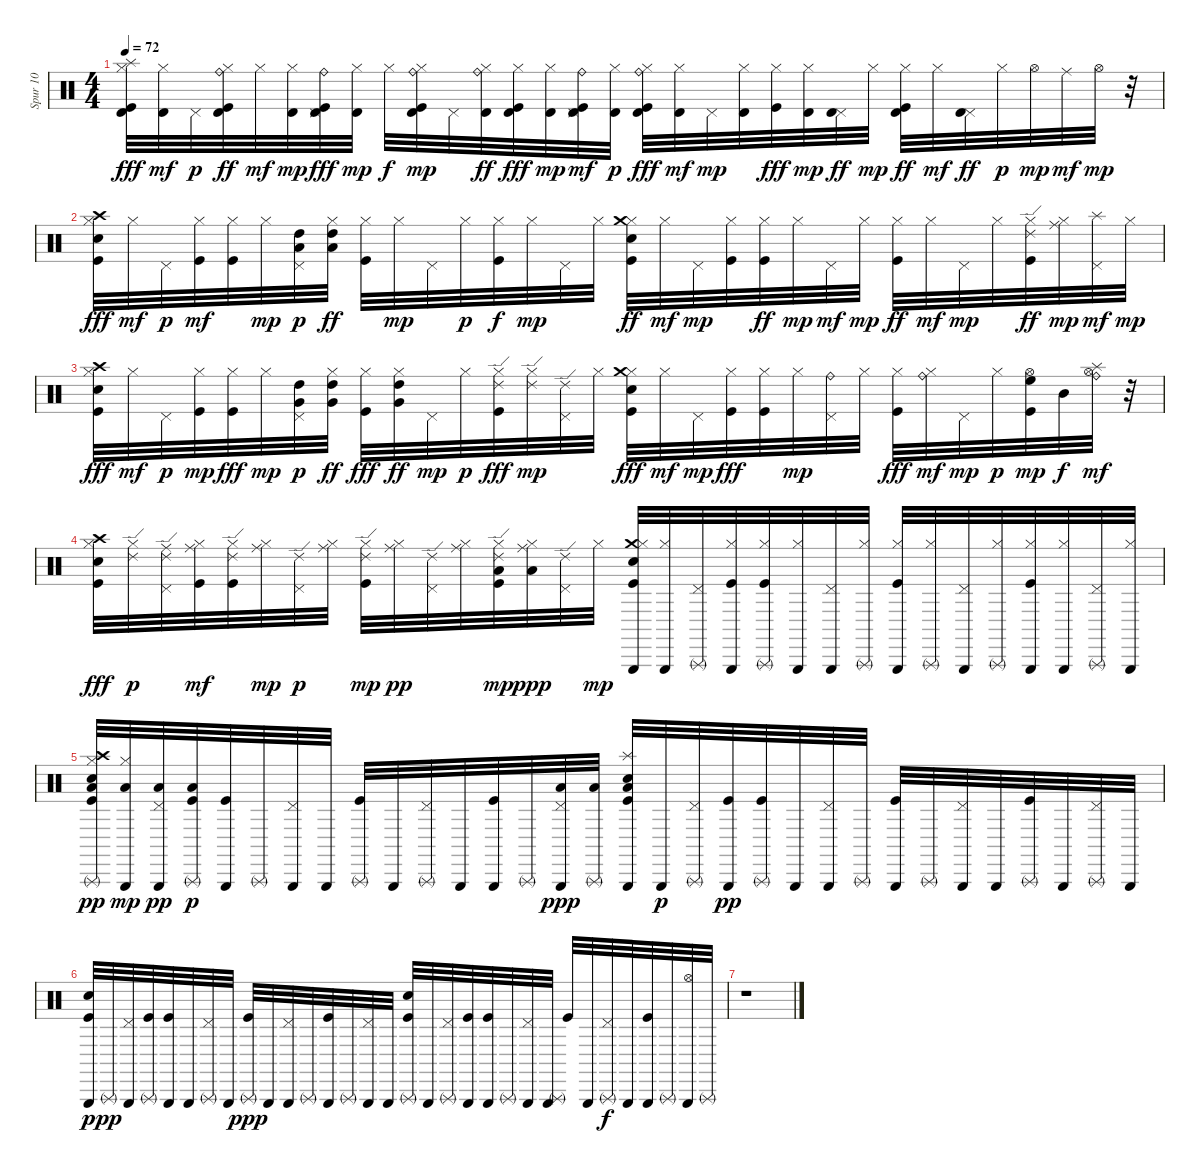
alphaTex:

\track ("Spur 10" "Spur 10") {instrument percussion}
\staff {score}
\articulation defaults
\ts (4 4)
\tempo 72
\clef neutral
\ks c
("Splash (hit)" "Timbale high (hit)" "Kick (hit)" "Hi-Hat (closed)").32{dy fff} ("Timbale high (hit)" "Hi-Hat (closed)").32{dy mf} "Pedal Hi-Hat (hit)".32{dy p} ("Ride (bell)" "Timbale high (hit)" "Hi-Hat (closed)" "Kick (hit)").32{dy ff} "Hi-Hat (closed)".32{dy mf} ("Hi-Hat (closed)" "Timbale high (hit)").32{dy mp} ("Ride (bell)" "Pedal Hi-Hat (hit)" "Timbale high (hit)" "Kick (hit)").32{dy fff} ("Timbale high (hit)" "Hi-Hat (closed)").32{dy mp} "Hi-Hat (closed)".32{dy f} ("Ride (bell)" "Hi-Hat (closed)" "Kick (hit)" "Timbale high (hit)").32{dy mp} "Pedal Hi-Hat (hit)".32 ("Hi-Hat (closed)" "Timbale high (hit)" "Ride (bell)").32{dy ff} ("Timbale high (hit)" "Kick (hit)" "Hi-Hat (closed)").32{dy fff} ("Timbale high (hit)" "Hi-Hat (closed)").32{dy mp} ("Ride (bell)" "Kick (hit)" "Pedal Hi-Hat (hit)" "Timbale high (hit)").32{dy mf} ("Hi-Hat (closed)" "Timbale high (hit)").32{dy p} ("Timbale high (hit)" "Ride (bell)" "Kick (hit)" "Hi-Hat (closed)").32{dy fff} ("Timbale high (hit)" "Hi-Hat (closed)").32{dy mf} "Pedal Hi-Hat (hit)".32{dy mp} ("Timbale high (hit)" "Hi-Hat (closed)").32 ("Hi-Hat (closed)" "Kick (hit)").32{dy fff} ("Timbale high (hit)" "Hi-Hat (closed)").32{dy mp} ("Pedal Hi-Hat (hit)" "Timbale high (hit)").32{dy ff} "Hi-Hat (closed)".32{dy mp} ("Timbale high (hit)" "Hi-Hat (closed)" "Kick (hit)").32{dy ff} "Hi-Hat (closed)".32{dy mf} ("Pedal Hi-Hat (hit)" "Timbale high (hit)").32{dy ff} "Hi-Hat (closed)".32{dy p} "Hi-Hat (open)".32{dy mp} "Ride (middle)".32{dy mf} "Hi-Hat (open)".32{dy mp} r.32 |
("Crash high (hit)" "Kick (hit)" "Hi-Hat (closed)" "Electric Snare (hit)").32{dy fff} "Hi-Hat (closed)".32{dy mf} "Pedal Hi-Hat (hit)".32{dy p} ("Hi-Hat (closed)" "Kick (hit)").32{dy mf} ("Hi-Hat (closed)" "Kick (hit)").32 "Hi-Hat (closed)".32{dy mp} ("Low Floor Tom (hit)" "Pedal Hi-Hat (hit)" "High Tom (hit)").32{dy p} ("Low Floor Tom (hit)" "Hi-Hat (closed)" "High Tom (hit)").32{dy ff} ("Hi-Hat (closed)" "Kick (hit)").32 "Hi-Hat (closed)".32{dy mp} "Pedal Hi-Hat (hit)".32 "Hi-Hat (closed)".32{dy p} ("Kick (hit)" "Hi-Hat (closed)").32{dy f} "Hi-Hat (closed)".32{dy mp} "Pedal Hi-Hat (hit)".32 "Hi-Hat (closed)".32 ("Kick (hit)" "Hi-Hat (closed)" "Electric Snare (hit)" "Crash medium (hit)").32{dy ff} "Hi-Hat (closed)".32{dy mf} "Pedal Hi-Hat (hit)".32{dy mp} ("Hi-Hat (closed)" "Kick (hit)").32 ("Hi-Hat (closed)" "Kick (hit)").32{dy ff} "Hi-Hat (closed)".32{dy mp} "Pedal Hi-Hat (hit)".32{dy mf} "Hi-Hat (closed)".32{dy mp} ("Hi-Hat (closed)" "Kick (hit)").32{dy ff} "Hi-Hat (closed)".32{dy mf} "Pedal Hi-Hat (hit)".32{dy mp} "Hi-Hat (closed)".32 ("Kick (hit)" "Hi-Hat (closed)" "Ride (edge) 2").32{dy ff} ("Ride (middle)" "Hi-Hat (closed)").32{dy mp} ("Pedal Hi-Hat (hit)" "Splash (hit)").32{dy mf} "Hi-Hat (closed)".32{dy mp} |
("Crash high (hit)" "Kick (hit)" "Hi-Hat (closed)" "Electric Snare (hit)").32{dy fff} "Hi-Hat (closed)".32{dy mf} "Pedal Hi-Hat (hit)".32{dy p} ("Hi-Hat (closed)" "Kick (hit)").32{dy mp} ("Hi-Hat (closed)" "Kick (hit)").32{dy fff} "Hi-Hat (closed)".32{dy mp} ("Very Low Tom (hit)" "Pedal Hi-Hat (hit)" "High Tom (hit)").32{dy p} ("Hi-Hat (closed)" "Very Low Tom (hit)" "High Tom (hit)").32{dy ff} ("Hi-Hat (closed)" "Kick (hit)").32{dy fff} ("Hi-Hat (closed)" "Very Low Tom (hit)" "High Tom (hit)").32{dy ff} "Pedal Hi-Hat (hit)".32{dy mp} "Hi-Hat (closed)".32{dy p} ("Ride (edge) 2" "Kick (hit)" "Hi-Hat (closed)").32{dy fff} ("Ride (edge) 2" "Hi-Hat (closed)").32{dy mp} ("Ride (edge) 2" "Pedal Hi-Hat (hit)").32 "Hi-Hat (closed)".32 ("Kick (hit)" "Hi-Hat (closed)" "Crash medium (hit)" "Electric Snare (hit)").32{dy fff} "Hi-Hat (closed)".32{dy mf} "Pedal Hi-Hat (hit)".32{dy mp} ("Hi-Hat (closed)" "Kick (hit)").32{dy fff} ("Hi-Hat (closed)" "Kick (hit)").32 "Hi-Hat (closed)".32{dy mp} ("Pedal Hi-Hat (hit)" "Ride (bell)").32 "Hi-Hat (closed)".32 ("Hi-Hat (closed)" "Kick (hit)").32{dy fff} ("Ride (bell)" "Hi-Hat (closed)").32{dy mf} "Pedal Hi-Hat (hit)".32{dy mp} "Hi-Hat (closed)".32{dy p} ("Kick (hit)" "Hi-Hat (open)" "High Floor Tom (hit)").32{dy mp} "Mid Tom (hit)".32{dy f} ("Splash (hit)" "Hi-Hat (open)" "Ride (bell)").32{dy mf} r.32 |
("Kick (hit)" "Hi-Hat (closed)" "Crash high (hit)" "Electric Snare (hit)").32{dy fff} ("Hi-Hat (closed)" "Ride (edge) 2").32{dy p} ("Pedal Hi-Hat (hit)" "Ride (edge) 2" "Ride (middle)").32 ("Hi-Hat (closed)" "Ride (middle)" "Kick (hit)").32{dy mf} ("Hi-Hat (closed)" "Ride (edge) 2" "Kick (hit)").32 ("Hi-Hat (closed)" "Ride (middle)").32{dy mp} ("Pedal Hi-Hat (hit)" "Ride (edge) 2").32{dy p} ("Hi-Hat (closed)" "Ride (middle)").32 ("Hi-Hat (closed)" "Ride (edge) 2" "Kick (hit)").32{dy mp} ("Hi-Hat (closed)" "Ride (middle)").32{dy pp} ("Pedal Hi-Hat (hit)" "Ride (edge) 2").32 ("Hi-Hat (closed)" "Ride (middle)").32 ("Kick (hit)" "Hi-Hat (closed)" "Ride (edge) 2" "Low Tom (hit)").32{dy mp} ("Low Floor Tom (hit)" "Hi-Hat (closed)" "Ride (middle)").32{dy ppp} ("Pedal Hi-Hat (hit)" "Ride (edge) 2").32 "Hi-Hat (closed)".32{dy mp} ("Crash medium (hit)" "Kick (hit)" "Hi-Hat (closed)" "Electric Snare (hit)" "Triangle (hit)").32 ("Hi-Hat (closed)" "Triangle (hit)").32 ("Pedal Hi-Hat (hit)" "Triangle (rnute)").32 ("Hi-Hat (closed)" "Triangle (hit)" "Kick (hit)").32 ("Hi-Hat (closed)" "Triangle (rnute)" "Kick (hit)").32 ("Hi-Hat (closed)" "Triangle (hit)").32 ("Pedal Hi-Hat (hit)" "Triangle (hit)").32 ("Hi-Hat (closed)" "Triangle (rnute)").32 ("Hi-Hat (closed)" "Triangle (hit)" "Kick (hit)").32 ("Hi-Hat (closed)" "Triangle (rnute)").32 ("Pedal Hi-Hat (hit)" "Triangle (hit)").32 ("Hi-Hat (closed)" "Triangle (rnute)").32 ("Kick (hit)" "Hi-Hat (closed)" "Triangle (hit)").32 ("Hi-Hat (closed)" "Triangle (hit)").32 ("Pedal Hi-Hat (hit)" "Triangle (rnute)").32 ("Hi-Hat (closed)" "Triangle (hit)").32 |
("Crash high (hit)" "Kick (hit)" "Hi-Hat (closed)" "Electric Snare (hit)" "Triangle (rnute)" "Low Floor Tom (hit)").32{dy pp} ("Hi-Hat (closed)" "Low Floor Tom (hit)" "Triangle (hit)").32{dy mp} ("Pedal Hi-Hat (hit)" "Triangle (hit)" "Low Floor Tom (hit)").32{dy pp} ("Low Floor Tom (hit)" "Triangle (rnute)" "Kick (hit)").32{dy p} ("Triangle (hit)" "Kick (hit)").32 "Triangle (rnute)".32 ("Pedal Hi-Hat (hit)" "Triangle (hit)").32 "Triangle (hit)".32 ("Triangle (rnute)" "Kick (hit)").32 "Triangle (hit)".32 ("Pedal Hi-Hat (hit)" "Triangle (rnute)").32 "Triangle (hit)".32 ("Kick (hit)" "Triangle (hit)").32 "Triangle (rnute)".32 ("Pedal Hi-Hat (hit)" "Triangle (hit)" "Low Floor Tom (hit)").32{dy ppp} ("Triangle (rnute)" "Low Floor Tom (hit)").32 ("Kick (hit)" "Electric Snare (hit)" "Triangle (hit)" "Splash (hit)" "Low Floor Tom (hit)").32 "Triangle (hit)".32{dy p} ("Pedal Hi-Hat (hit)" "Triangle (rnute)").32 ("Triangle (hit)" "Kick (hit)").32{dy pp} ("Triangle (rnute)" "Kick (hit)").32 "Triangle (hit)".32 ("Pedal Hi-Hat (hit)" "Triangle (hit)").32 "Triangle (rnute)".32 ("Triangle (hit)" "Kick (hit)").32 "Triangle (rnute)".32 ("Pedal Hi-Hat (hit)" "Triangle (hit)").32 "Triangle (hit)".32 ("Kick (hit)" "Triangle (rnute)").32 "Triangle (hit)".32 ("Pedal Hi-Hat (hit)" "Triangle (rnute)").32 "Triangle (hit)".32 |
("Kick (hit)" "Triangle (hit)" "Electric Snare (hit)").32{dy p} "Triangle (rnute)".32{dy pp} ("Pedal Hi-Hat (hit)" "Triangle (hit)").32 ("Triangle (rnute)" "Kick (hit)").32 ("Triangle (hit)" "Kick (hit)").32 "Triangle (hit)".32 ("Pedal Hi-Hat (hit)" "Triangle (rnute)").32 "Triangle (hit)".32 ("Triangle (rnute)" "Kick (hit)").32{dy ppp} "Triangle (hit)".32 ("Pedal Hi-Hat (hit)" "Triangle (hit)").32 "Triangle (rnute)".32 ("Kick (hit)" "Triangle (hit)").32 "Triangle (rnute)".32 ("Pedal Hi-Hat (hit)" "Triangle (hit)").32 "Triangle (hit)".32 ("Kick (hit)" "Triangle (rnute)" "Electric Snare (hit)").32 "Triangle (hit)".32 ("Pedal Hi-Hat (hit)" "Triangle (rnute)").32 ("Triangle (hit)" "Kick (hit)").32 ("Triangle (hit)" "Kick (hit)").32 "Triangle (rnute)".32 ("Pedal Hi-Hat (hit)" "Triangle (hit)").32 ("Triangle (hit)" "Triangle (rnute)").32 "Kick (hit)".32 "Triangle (hit)".32 ("Pedal Hi-Hat (hit)" "Triangle (rnute)").32{dy f} "Triangle (hit)".32 ("Kick (hit)" "Triangle (hit)").32 "Triangle (rnute)".32 ("Hi-Hat (open)" "Triangle (hit)").32 "Triangle (rnute)".32 |
r.1
